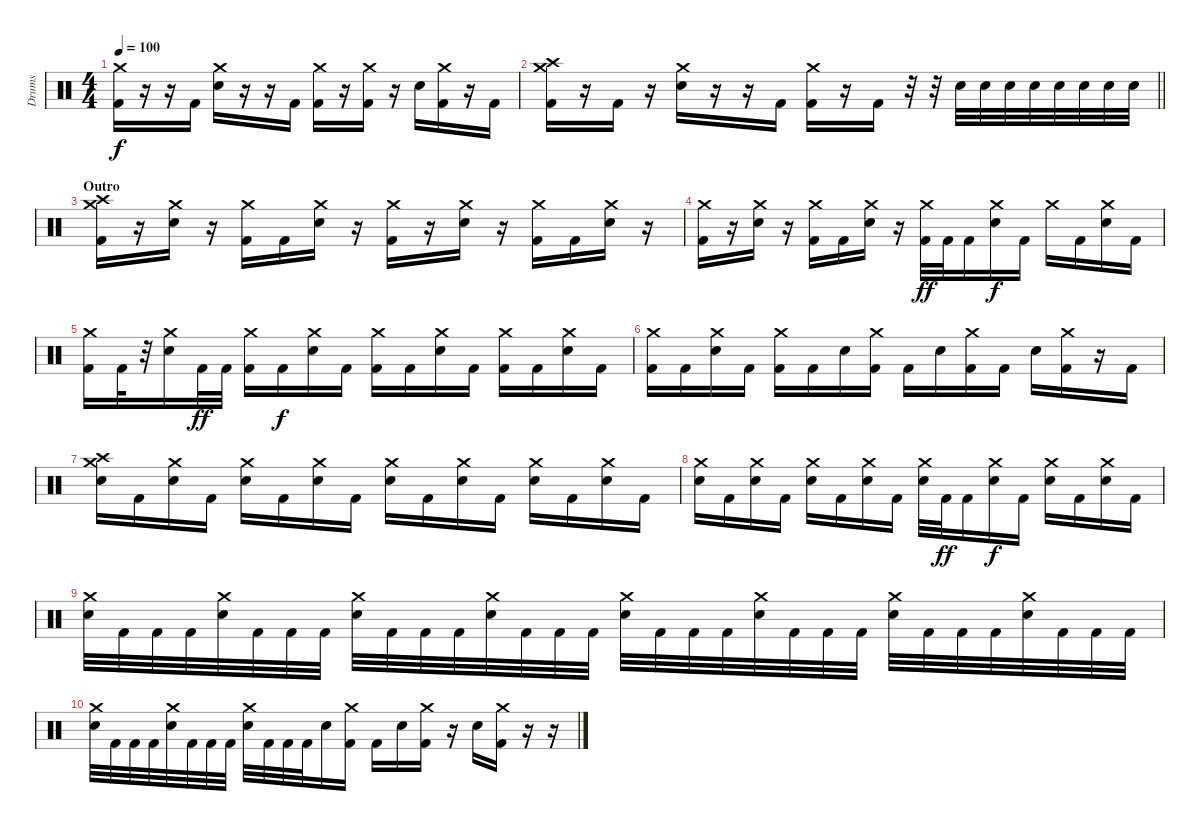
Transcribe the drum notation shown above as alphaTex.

\track ("Drums" "Drums") {instrument percussion}
\staff {score}
\articulation defaults
\ts (4 4)
\tempo 100
\clef neutral
\ks c
("Crash medium (hit)" "Kick (hit) 2").16{dy f} r.16 r.16 "Kick (hit) 2".16 ("Crash medium (hit)" "Electric Snare (hit)").16 r.16 r.16 "Kick (hit) 2".16 ("Crash medium (hit)" "Kick (hit) 2").16 r.16 ("Crash medium (hit)" "Kick (hit) 2").16 r.16 "Electric Snare (hit)".16 ("Crash medium (hit)" "Kick (hit) 2").16 r.16 "Kick (hit) 2".16 |
\barLineRight lightlight
("Crash high (hit)" "Crash medium (hit)" "Kick (hit) 2").16 r.16 "Kick (hit) 2".16 r.16 ("Crash medium (hit)" "Electric Snare (hit)").16 r.16 r.16 "Kick (hit) 2".16 ("Crash medium (hit)" "Kick (hit) 2").16 r.16 "Kick (hit) 2".16 r.32 r.32 "Electric Snare (hit)".32 "Electric Snare (hit)".32 "Electric Snare (hit)".32 "Electric Snare (hit)".32 "Electric Snare (hit)".32 "Electric Snare (hit)".32 "Electric Snare (hit)".32 "Electric Snare (hit)".32 |
\section ("" "Outro")
("Crash high (hit)" "Crash medium (hit)" "Kick (hit) 2").16 r.16 ("Crash medium (hit)" "Electric Snare (hit)").16 r.16 ("Crash medium (hit)" "Kick (hit) 2").16 "Kick (hit) 2".16 ("Crash medium (hit)" "Electric Snare (hit)").16 r.16 ("Crash medium (hit)" "Kick (hit) 2").16 r.16 ("Crash medium (hit)" "Electric Snare (hit)").16 r.16 ("Crash medium (hit)" "Kick (hit) 2").16 "Kick (hit) 2".16 ("Crash medium (hit)" "Electric Snare (hit)").16 r.16 |
("Crash medium (hit)" "Kick (hit) 2").16 r.16 ("Crash medium (hit)" "Electric Snare (hit)").16 r.16 ("Crash medium (hit)" "Kick (hit) 2").16 "Kick (hit) 2".16 ("Crash medium (hit)" "Electric Snare (hit)").16 r.16 ("Crash medium (hit)" "Kick (hit) 2").32{dy ff} "Kick (hit) 2".32 "Kick (hit) 2".16 ("Crash medium (hit)" "Electric Snare (hit)").16{dy f} "Kick (hit) 2".16 "Crash medium (hit)".16 "Kick (hit) 2".16 ("Crash medium (hit)" "Electric Snare (hit)").16 "Kick (hit) 2".16 |
("Crash medium (hit)" "Kick (hit) 2").16 "Kick (hit) 2".32 r.32 ("Crash medium (hit)" "Electric Snare (hit)").16 "Kick (hit) 2".32{dy ff} "Kick (hit) 2".32 ("Crash medium (hit)" "Kick (hit) 2").16 "Kick (hit) 2".16{dy f} ("Crash medium (hit)" "Electric Snare (hit)").16 "Kick (hit) 2".16 ("Crash medium (hit)" "Kick (hit) 2").16 "Kick (hit) 2".16 ("Crash medium (hit)" "Electric Snare (hit)").16 "Kick (hit) 2".16 ("Crash medium (hit)" "Kick (hit) 2").16 "Kick (hit) 2".16 ("Crash medium (hit)" "Electric Snare (hit)").16 "Kick (hit) 2".16 |
("Crash medium (hit)" "Kick (hit) 2").16 "Kick (hit) 2".16 ("Crash medium (hit)" "Electric Snare (hit)").16 "Kick (hit) 2".16 ("Crash medium (hit)" "Kick (hit) 2").16 "Kick (hit) 2".16 "Electric Snare (hit)".16 ("Crash medium (hit)" "Kick (hit) 2").16 "Kick (hit) 2".16 "Electric Snare (hit)".16 ("Crash medium (hit)" "Kick (hit) 2").16 "Kick (hit) 2".16 "Electric Snare (hit)".16 ("Crash medium (hit)" "Kick (hit) 2").16 r.16 "Kick (hit) 2".16 |
("Crash high (hit)" "Crash medium (hit)" "Electric Snare (hit)").16 "Kick (hit) 2".16 ("Crash medium (hit)" "Electric Snare (hit)").16 "Kick (hit) 2".16 ("Crash medium (hit)" "Electric Snare (hit)").16 "Kick (hit) 2".16 ("Crash medium (hit)" "Electric Snare (hit)").16 "Kick (hit) 2".16 ("Crash medium (hit)" "Electric Snare (hit)").16 "Kick (hit) 2".16 ("Crash medium (hit)" "Electric Snare (hit)").16 "Kick (hit) 2".16 ("Crash medium (hit)" "Electric Snare (hit)").16 "Kick (hit) 2".16 ("Crash medium (hit)" "Electric Snare (hit)").16 "Kick (hit) 2".16 |
("Crash medium (hit)" "Electric Snare (hit)").16 "Kick (hit) 2".16 ("Crash medium (hit)" "Electric Snare (hit)").16 "Kick (hit) 2".16 ("Crash medium (hit)" "Electric Snare (hit)").16 "Kick (hit) 2".16 ("Crash medium (hit)" "Electric Snare (hit)").16 "Kick (hit) 2".16 ("Crash medium (hit)" "Electric Snare (hit)").32 "Kick (hit) 2".32{dy ff} "Kick (hit) 2".16 ("Crash medium (hit)" "Electric Snare (hit)").16{dy f} "Kick (hit) 2".16 ("Crash medium (hit)" "Electric Snare (hit)").16 "Kick (hit) 2".16 ("Crash medium (hit)" "Electric Snare (hit)").16 "Kick (hit) 2".16 |
("Crash medium (hit)" "Electric Snare (hit)").32 "Kick (hit) 2".32 "Kick (hit) 2".32 "Kick (hit) 2".32 ("Crash medium (hit)" "Electric Snare (hit)").32 "Kick (hit) 2".32 "Kick (hit) 2".32 "Kick (hit) 2".32 ("Crash medium (hit)" "Electric Snare (hit)").32 "Kick (hit) 2".32 "Kick (hit) 2".32 "Kick (hit) 2".32 ("Crash medium (hit)" "Electric Snare (hit)").32 "Kick (hit) 2".32 "Kick (hit) 2".32 "Kick (hit) 2".32 ("Crash medium (hit)" "Electric Snare (hit)").32 "Kick (hit) 2".32 "Kick (hit) 2".32 "Kick (hit) 2".32 ("Crash medium (hit)" "Electric Snare (hit)").32 "Kick (hit) 2".32 "Kick (hit) 2".32 "Kick (hit) 2".32 ("Crash medium (hit)" "Electric Snare (hit)").32 "Kick (hit) 2".32 "Kick (hit) 2".32 "Kick (hit) 2".32 ("Crash medium (hit)" "Electric Snare (hit)").32 "Kick (hit) 2".32 "Kick (hit) 2".32 "Kick (hit) 2".32 |
("Crash medium (hit)" "Electric Snare (hit)").32 "Kick (hit) 2".32 "Kick (hit) 2".32 "Kick (hit) 2".32 ("Crash medium (hit)" "Electric Snare (hit)").32 "Kick (hit) 2".32 "Kick (hit) 2".32 "Kick (hit) 2".32 ("Crash medium (hit)" "Electric Snare (hit)").32 "Kick (hit) 2".32 "Kick (hit) 2".32 "Kick (hit) 2".32 "Electric Snare (hit)".16 ("Crash medium (hit)" "Kick (hit) 2").16 "Kick (hit) 2".16 "Electric Snare (hit)".16 ("Crash medium (hit)" "Kick (hit) 2").16 r.16 "Electric Snare (hit)".16 ("Crash medium (hit)" "Kick (hit) 2").16 r.16 r.16
